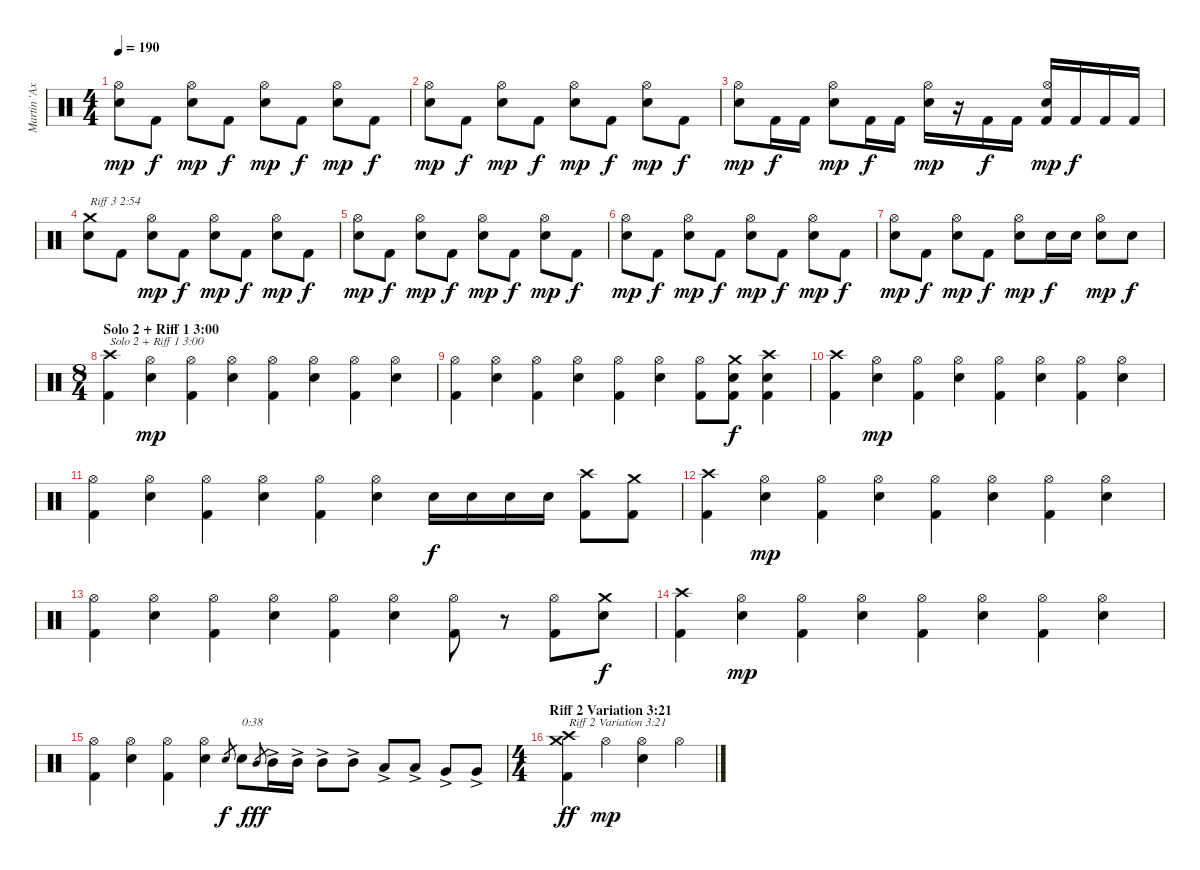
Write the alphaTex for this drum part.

\track ("Martin 'Axe' Axenroth" "Martin 'Ax") {instrument percussion}
\staff {score}
\articulation defaults
\ts (4 4)
\tempo 190
\clef neutral
\ks c
("Electric Snare (hit)" "Hi-Hat (open)").8{dy mp} "Kick (hit) 2".8{dy f} ("Electric Snare (hit)" "Hi-Hat (open)").8{dy mp} "Kick (hit) 2".8{dy f} ("Electric Snare (hit)" "Hi-Hat (open)").8{dy mp} "Kick (hit) 2".8{dy f} ("Electric Snare (hit)" "Hi-Hat (open)").8{dy mp} "Kick (hit) 2".8{dy f} |
("Electric Snare (hit)" "Hi-Hat (open)").8{dy mp} "Kick (hit) 2".8{dy f} ("Electric Snare (hit)" "Hi-Hat (open)").8{dy mp} "Kick (hit) 2".8{dy f} ("Electric Snare (hit)" "Hi-Hat (open)").8{dy mp} "Kick (hit) 2".8{dy f} ("Electric Snare (hit)" "Hi-Hat (open)").8{dy mp} "Kick (hit) 2".8{dy f} |
("Electric Snare (hit)" "Hi-Hat (open)").8{dy mp} "Kick (hit) 2".16{dy f} "Kick (hit) 2".16 ("Electric Snare (hit)" "Hi-Hat (open)").8{dy mp} "Kick (hit) 2".16{dy f} "Kick (hit) 2".16 ("Electric Snare (hit)" "Hi-Hat (open)").16{dy mp} r.16 "Kick (hit) 2".16{dy f} "Kick (hit) 2".16 ("Kick (hit) 2" "Electric Snare (hit)" "Hi-Hat (open)").16{dy mp} "Kick (hit) 2".16{dy f} "Kick (hit) 2".16 "Kick (hit) 2".16 |
("Electric Snare (hit)" "Crash medium (hit)").8{txt "Riff 3 2:54"} "Kick (hit) 2".8 ("Electric Snare (hit)" "Hi-Hat (open)").8{dy mp} "Kick (hit) 2".8{dy f} ("Electric Snare (hit)" "Hi-Hat (open)").8{dy mp} "Kick (hit) 2".8{dy f} ("Electric Snare (hit)" "Hi-Hat (open)").8{dy mp} "Kick (hit) 2".8{dy f} |
("Electric Snare (hit)" "Hi-Hat (open)").8{dy mp} "Kick (hit) 2".8{dy f} ("Electric Snare (hit)" "Hi-Hat (open)").8{dy mp} "Kick (hit) 2".8{dy f} ("Electric Snare (hit)" "Hi-Hat (open)").8{dy mp} "Kick (hit) 2".8{dy f} ("Electric Snare (hit)" "Hi-Hat (open)").8{dy mp} "Kick (hit) 2".8{dy f} |
("Electric Snare (hit)" "Hi-Hat (open)").8{dy mp} "Kick (hit) 2".8{dy f} ("Electric Snare (hit)" "Hi-Hat (open)").8{dy mp} "Kick (hit) 2".8{dy f} ("Electric Snare (hit)" "Hi-Hat (open)").8{dy mp} "Kick (hit) 2".8{dy f} ("Electric Snare (hit)" "Hi-Hat (open)").8{dy mp} "Kick (hit) 2".8{dy f} |
("Electric Snare (hit)" "Hi-Hat (open)").8{dy mp} "Kick (hit) 2".8{dy f} ("Electric Snare (hit)" "Hi-Hat (open)").8{dy mp} "Kick (hit) 2".8{dy f} ("Electric Snare (hit)" "Hi-Hat (open)").8{dy mp} "Electric Snare (hit)".16{dy f} "Electric Snare (hit)".16 ("Electric Snare (hit)" "Hi-Hat (open)").8{dy mp} "Electric Snare (hit)".8{dy f} |
\ts (8 4)
\section ("" "Solo 2 + Riff 1 3:00")
("Kick (hit) 2" "Crash high (hit)").4{txt "Solo 2 + Riff 1 3:00"} ("Electric Snare (hit)" "Hi-Hat (open)").4{dy mp} ("Kick (hit) 2" "Hi-Hat (open)").4 ("Electric Snare (hit)" "Hi-Hat (open)").4 ("Kick (hit) 2" "Hi-Hat (open)").4 ("Electric Snare (hit)" "Hi-Hat (open)").4 ("Kick (hit) 2" "Hi-Hat (open)").4 ("Electric Snare (hit)" "Hi-Hat (open)").4 |
("Kick (hit) 2" "Hi-Hat (open)").4 ("Electric Snare (hit)" "Hi-Hat (open)").4 ("Kick (hit) 2" "Hi-Hat (open)").4 ("Electric Snare (hit)" "Hi-Hat (open)").4 ("Kick (hit) 2" "Hi-Hat (open)").4 ("Electric Snare (hit)" "Hi-Hat (open)").4 ("Kick (hit) 2" "Hi-Hat (open)").8 ("Kick (hit) 2" "Electric Snare (hit)" "Crash medium (hit)").8{dy f} ("Kick (hit) 2" "Electric Snare (hit)" "Crash high (hit)").4 |
("Kick (hit) 2" "Crash high (hit)").4 ("Electric Snare (hit)" "Hi-Hat (open)").4{dy mp} ("Kick (hit) 2" "Hi-Hat (open)").4 ("Electric Snare (hit)" "Hi-Hat (open)").4 ("Kick (hit) 2" "Hi-Hat (open)").4 ("Electric Snare (hit)" "Hi-Hat (open)").4 ("Kick (hit) 2" "Hi-Hat (open)").4 ("Electric Snare (hit)" "Hi-Hat (open)").4 |
("Kick (hit) 2" "Hi-Hat (open)").4 ("Electric Snare (hit)" "Hi-Hat (open)").4 ("Kick (hit) 2" "Hi-Hat (open)").4 ("Electric Snare (hit)" "Hi-Hat (open)").4 ("Kick (hit) 2" "Hi-Hat (open)").4 ("Electric Snare (hit)" "Hi-Hat (open)").4 "Electric Snare (hit)".16{dy f} "Electric Snare (hit)".16 "Electric Snare (hit)".16 "Electric Snare (hit)".16 ("Kick (hit) 2" "Crash high (hit)").8 ("Kick (hit) 2" "Crash medium (hit)").8 |
("Kick (hit) 2" "Crash high (hit)").4 ("Electric Snare (hit)" "Hi-Hat (open)").4{dy mp} ("Kick (hit) 2" "Hi-Hat (open)").4 ("Electric Snare (hit)" "Hi-Hat (open)").4 ("Kick (hit) 2" "Hi-Hat (open)").4 ("Electric Snare (hit)" "Hi-Hat (open)").4 ("Kick (hit) 2" "Hi-Hat (open)").4 ("Electric Snare (hit)" "Hi-Hat (open)").4 |
("Kick (hit) 2" "Hi-Hat (open)").4 ("Electric Snare (hit)" "Hi-Hat (open)").4 ("Kick (hit) 2" "Hi-Hat (open)").4 ("Electric Snare (hit)" "Hi-Hat (open)").4 ("Kick (hit) 2" "Hi-Hat (open)").4 ("Electric Snare (hit)" "Hi-Hat (open)").4 ("Kick (hit) 2" "Hi-Hat (open)").8 r.8 ("Kick (hit) 2" "Hi-Hat (open)").8 ("Electric Snare (hit)" "Crash medium (hit)").8{dy f} |
("Kick (hit) 2" "Crash high (hit)").4 ("Electric Snare (hit)" "Hi-Hat (open)").4{dy mp} ("Kick (hit) 2" "Hi-Hat (open)").4 ("Electric Snare (hit)" "Hi-Hat (open)").4 ("Kick (hit) 2" "Hi-Hat (open)").4 ("Electric Snare (hit)" "Hi-Hat (open)").4 ("Kick (hit) 2" "Hi-Hat (open)").4 ("Electric Snare (hit)" "Hi-Hat (open)").4 |
("Kick (hit) 2" "Hi-Hat (open)").4 ("Electric Snare (hit)" "Hi-Hat (open)").4 ("Kick (hit) 2" "Hi-Hat (open)").4 ("Electric Snare (hit)" "Hi-Hat (open)").4 "Electric Snare (hit)".8{gr dy f} "Electric Snare (hit)".8{txt "0:38"} "Mid Tom (hit)".8{gr dy fff} "Mid Tom (hit)"{ac}.16 "Mid Tom (hit)"{ac}.16 "Mid Tom (hit)"{ac}.8 "Mid Tom (hit)"{ac}.8 "Low Tom (hit)"{ac}.8 "Low Tom (hit)"{ac}.8 "Very Low Tom (hit)"{ac}.8 "Very Low Tom (hit)"{ac}.8 |
\ts (4 4)
\section ("" "Riff 2 Variation 3:21")
("Kick (hit) 2" "Crash high (hit)" "Crash medium (hit)").4{txt "Riff 2 Variation 3:21" dy ff} "Hi-Hat (open)".4{dy mp} ("Electric Snare (hit)" "Hi-Hat (open)").4 "Hi-Hat (open)".4
